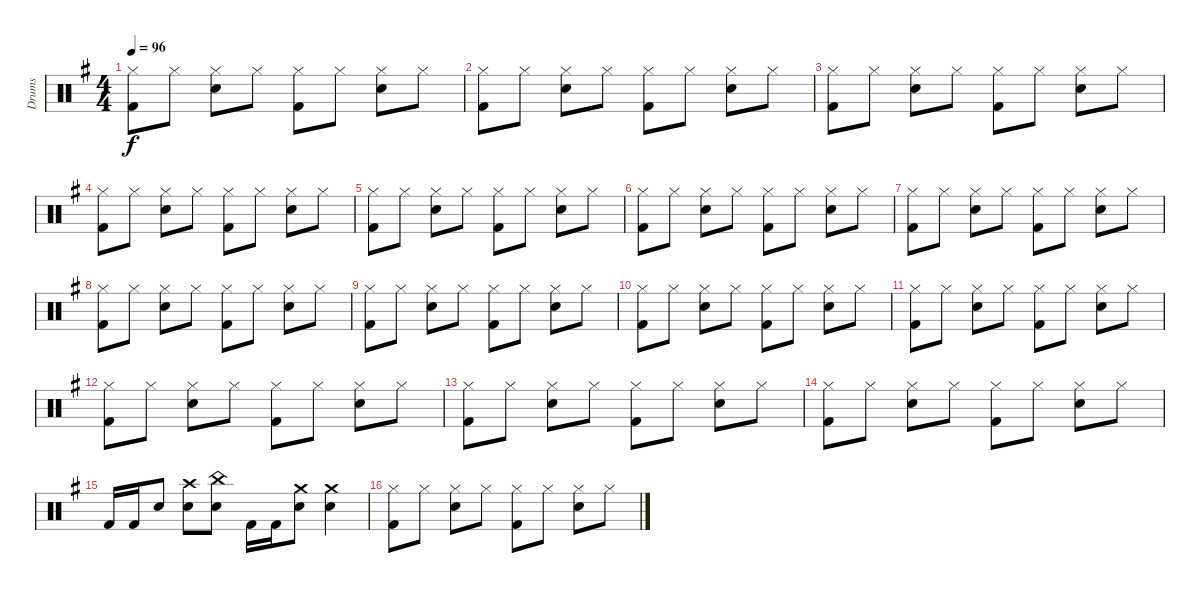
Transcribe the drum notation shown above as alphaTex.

\track ("Drums" "Drums") {instrument percussion}
\staff {score}
\articulation defaults
\ts (4 4)
\tempo 96
\clef neutral
\ks eminor
("Hi-Hat (closed)" "Kick (hit) 2").8{dy f} "Hi-Hat (closed)".8 ("Hi-Hat (closed)" "Snare (hit) 2").8 "Hi-Hat (closed)".8 ("Hi-Hat (closed)" "Kick (hit) 2").8 "Hi-Hat (closed)".8 ("Hi-Hat (closed)" "Snare (hit) 2").8 "Hi-Hat (closed)".8 |
("Hi-Hat (closed)" "Kick (hit) 2").8 "Hi-Hat (closed)".8 ("Hi-Hat (closed)" "Snare (hit) 2").8 "Hi-Hat (closed)".8 ("Hi-Hat (closed)" "Kick (hit) 2").8 "Hi-Hat (closed)".8 ("Hi-Hat (closed)" "Snare (hit) 2").8 "Hi-Hat (closed)".8 |
("Hi-Hat (closed)" "Kick (hit) 2").8 "Hi-Hat (closed)".8 ("Hi-Hat (closed)" "Snare (hit) 2").8 "Hi-Hat (closed)".8 ("Hi-Hat (closed)" "Kick (hit) 2").8 "Hi-Hat (closed)".8 ("Hi-Hat (closed)" "Snare (hit) 2").8 "Hi-Hat (closed)".8 |
("Hi-Hat (closed)" "Kick (hit) 2").8 "Hi-Hat (closed)".8 ("Hi-Hat (closed)" "Snare (hit) 2").8 "Hi-Hat (closed)".8 ("Hi-Hat (closed)" "Kick (hit) 2").8 "Hi-Hat (closed)".8 ("Hi-Hat (closed)" "Snare (hit) 2").8 "Hi-Hat (closed)".8 |
("Hi-Hat (closed)" "Kick (hit) 2").8 "Hi-Hat (closed)".8 ("Hi-Hat (closed)" "Snare (hit) 2").8 "Hi-Hat (closed)".8 ("Hi-Hat (closed)" "Kick (hit) 2").8 "Hi-Hat (closed)".8 ("Hi-Hat (closed)" "Snare (hit) 2").8 "Hi-Hat (closed)".8 |
("Hi-Hat (closed)" "Kick (hit) 2").8 "Hi-Hat (closed)".8 ("Hi-Hat (closed)" "Snare (hit) 2").8 "Hi-Hat (closed)".8 ("Hi-Hat (closed)" "Kick (hit) 2").8 "Hi-Hat (closed)".8 ("Hi-Hat (closed)" "Snare (hit) 2").8 "Hi-Hat (closed)".8 |
("Hi-Hat (closed)" "Kick (hit) 2").8 "Hi-Hat (closed)".8 ("Hi-Hat (closed)" "Snare (hit) 2").8 "Hi-Hat (closed)".8 ("Hi-Hat (closed)" "Kick (hit) 2").8 "Hi-Hat (closed)".8 ("Hi-Hat (closed)" "Snare (hit) 2").8 "Hi-Hat (closed)".8 |
("Hi-Hat (closed)" "Kick (hit) 2").8 "Hi-Hat (closed)".8 ("Hi-Hat (closed)" "Snare (hit) 2").8 "Hi-Hat (closed)".8 ("Hi-Hat (closed)" "Kick (hit) 2").8 "Hi-Hat (closed)".8 ("Hi-Hat (closed)" "Snare (hit) 2").8 "Hi-Hat (closed)".8 |
("Hi-Hat (closed)" "Kick (hit) 2").8 "Hi-Hat (closed)".8 ("Hi-Hat (closed)" "Snare (hit) 2").8 "Hi-Hat (closed)".8 ("Hi-Hat (closed)" "Kick (hit) 2").8 "Hi-Hat (closed)".8 ("Hi-Hat (closed)" "Snare (hit) 2").8 "Hi-Hat (closed)".8 |
("Hi-Hat (closed)" "Kick (hit) 2").8 "Hi-Hat (closed)".8 ("Hi-Hat (closed)" "Snare (hit) 2").8 "Hi-Hat (closed)".8 ("Hi-Hat (closed)" "Kick (hit) 2").8 "Hi-Hat (closed)".8 ("Hi-Hat (closed)" "Snare (hit) 2").8 "Hi-Hat (closed)".8 |
("Hi-Hat (closed)" "Kick (hit) 2").8 "Hi-Hat (closed)".8 ("Hi-Hat (closed)" "Snare (hit) 2").8 "Hi-Hat (closed)".8 ("Hi-Hat (closed)" "Kick (hit) 2").8 "Hi-Hat (closed)".8 ("Hi-Hat (closed)" "Snare (hit) 2").8 "Hi-Hat (closed)".8 |
("Hi-Hat (closed)" "Kick (hit) 2").8 "Hi-Hat (closed)".8 ("Hi-Hat (closed)" "Snare (hit) 2").8 "Hi-Hat (closed)".8 ("Hi-Hat (closed)" "Kick (hit) 2").8 "Hi-Hat (closed)".8 ("Hi-Hat (closed)" "Snare (hit) 2").8 "Hi-Hat (closed)".8 |
("Hi-Hat (closed)" "Kick (hit) 2").8 "Hi-Hat (closed)".8 ("Hi-Hat (closed)" "Snare (hit) 2").8 "Hi-Hat (closed)".8 ("Hi-Hat (closed)" "Kick (hit) 2").8 "Hi-Hat (closed)".8 ("Hi-Hat (closed)" "Snare (hit) 2").8 "Hi-Hat (closed)".8 |
("Hi-Hat (closed)" "Kick (hit) 2").8 "Hi-Hat (closed)".8 ("Hi-Hat (closed)" "Snare (hit) 2").8 "Hi-Hat (closed)".8 ("Hi-Hat (closed)" "Kick (hit) 2").8 "Hi-Hat (closed)".8 ("Hi-Hat (closed)" "Snare (hit) 2").8 "Hi-Hat (closed)".8 |
"Kick (hit) 2".16 "Kick (hit) 2".16 "Snare (hit) 2".8 ("Crash high (hit)" "Snare (hit) 2").8 ("China (hit)" "Snare (hit) 2").8 "Kick (hit) 2".16 "Kick (hit) 2".16 ("Crash medium (hit)" "Snare (hit) 2").8 ("Crash medium (hit)" "Snare (hit) 2").4 |
("Hi-Hat (closed)" "Kick (hit) 2").8 "Hi-Hat (closed)".8 ("Hi-Hat (closed)" "Snare (hit) 2").8 "Hi-Hat (closed)".8 ("Hi-Hat (closed)" "Kick (hit) 2").8 "Hi-Hat (closed)".8 ("Hi-Hat (closed)" "Snare (hit) 2").8 "Hi-Hat (closed)".8
